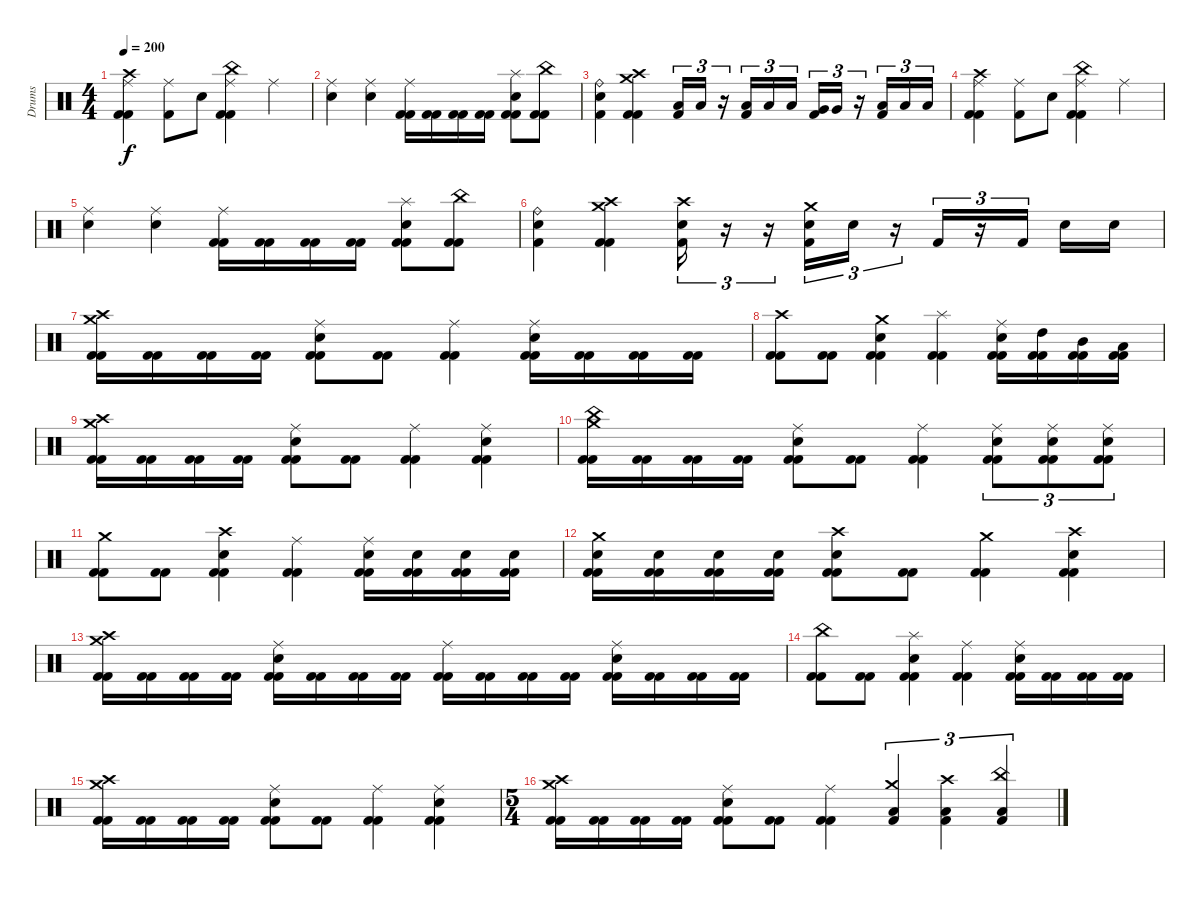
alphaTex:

\track ("Drums" "Drums") {instrument percussion}
\staff {score}
\articulation defaults
\ts (4 4)
\tempo 200
\clef neutral
\ks c
("Crash high (hit)" "Ride (middle)" "Kick (hit) 2" "Kick (hit) 2").4{dy f} ("Ride (middle)" "Kick (hit) 2").8 "Electric Snare (hit)".8 ("China (hit)" "Ride (middle)" "Kick (hit) 2" "Kick (hit) 2").4 "Ride (middle)".4 |
("Electric Snare (hit)" "Ride (middle)").4 ("Electric Snare (hit)" "Ride (middle)").4 ("Kick (hit) 2" "Ride (middle)" "Kick (hit) 2").16 ("Kick (hit) 2" "Kick (hit) 2").16 ("Kick (hit) 2" "Kick (hit) 2").16 ("Kick (hit) 2" "Kick (hit) 2").16 ("Electric Snare (hit)" "Splash (hit)" "Kick (hit) 2" "Kick (hit) 2").8 ("China (hit)" "Kick (hit) 2" "Kick (hit) 2").8 |
("Ride (bell)" "Electric Snare (hit)" "Kick (hit) 2").4 ("Crash medium (hit)" "Crash high (hit)" "Kick (hit) 2" "Kick (hit) 2").4 ("Low Tom (hit)" "Kick (hit) 2").16{tu (3 2)} "Low Tom (hit)".16{tu (3 2)} r.16{tu (3 2)} ("Low Floor Tom (hit)" "Kick (hit) 2").16{tu (3 2)} "Low Floor Tom (hit)".16{tu (3 2)} "Low Floor Tom (hit)".16{tu (3 2)} ("Very Low Tom (hit)" "Kick (hit) 2").16{tu (3 2)} "Very Low Tom (hit)".16{tu (3 2)} r.16{tu (3 2)} ("Low Floor Tom (hit)" "Kick (hit) 2").16{tu (3 2)} "Low Floor Tom (hit)".16{tu (3 2)} "Low Floor Tom (hit)".16{tu (3 2)} |
("Crash high (hit)" "Ride (middle)" "Kick (hit) 2" "Kick (hit) 2").4 ("Ride (middle)" "Kick (hit) 2").8 "Electric Snare (hit)".8 ("China (hit)" "Ride (middle)" "Kick (hit) 2" "Kick (hit) 2").4 "Ride (middle)".4 |
("Electric Snare (hit)" "Ride (middle)").4 ("Electric Snare (hit)" "Ride (middle)").4 ("Kick (hit) 2" "Ride (middle)" "Kick (hit) 2").16 ("Kick (hit) 2" "Kick (hit) 2").16 ("Kick (hit) 2" "Kick (hit) 2").16 ("Kick (hit) 2" "Kick (hit) 2").16 ("Electric Snare (hit)" "Splash (hit)" "Kick (hit) 2" "Kick (hit) 2").8 ("China (hit)" "Kick (hit) 2" "Kick (hit) 2").8 |
("Ride (bell)" "Electric Snare (hit)" "Kick (hit) 2").4 ("Crash medium (hit)" "Crash high (hit)" "Kick (hit) 2" "Kick (hit) 2").4 ("Crash high (hit)" "Electric Snare (hit)" "Kick (hit) 2").16{tu (3 2)} r.16{tu (3 2)} r.16{tu (3 2)} ("Crash medium (hit)" "Electric Snare (hit)" "Kick (hit) 2").16{tu (3 2)} "Electric Snare (hit)".16{tu (3 2)} r.16{tu (3 2)} "Kick (hit) 2".16{tu (3 2)} r.16{tu (3 2)} "Kick (hit) 2".16{tu (3 2)} "Electric Snare (hit)".16 "Electric Snare (hit)".16 |
("Crash high (hit)" "Crash medium (hit)" "Kick (hit) 2" "Kick (hit) 2").16 ("Kick (hit) 2" "Kick (hit) 2").16 ("Kick (hit) 2" "Kick (hit) 2").16 ("Kick (hit) 2" "Kick (hit) 2").16 ("Electric Snare (hit)" "Ride (middle)" "Kick (hit) 2" "Kick (hit) 2").8 ("Kick (hit) 2" "Kick (hit) 2").8 ("Ride (middle)" "Kick (hit) 2" "Kick (hit) 2").4 ("Electric Snare (hit)" "Ride (middle)" "Kick (hit) 2" "Kick (hit) 2").16 ("Kick (hit) 2" "Kick (hit) 2").16 ("Kick (hit) 2" "Kick (hit) 2").16 ("Kick (hit) 2" "Kick (hit) 2").16 |
("Crash high (hit)" "Kick (hit) 2" "Kick (hit) 2").8 ("Kick (hit) 2" "Kick (hit) 2").8 ("Electric Snare (hit)" "Crash medium (hit)" "Kick (hit) 2" "Kick (hit) 2").4 ("Splash (hit)" "Kick (hit) 2" "Kick (hit) 2").4 ("Electric Snare (hit)" "Ride (middle)" "Kick (hit) 2" "Kick (hit) 2").16 ("High Tom (hit)" "Kick (hit) 2" "Kick (hit) 2").16 ("Mid Tom (hit)" "Kick (hit) 2" "Kick (hit) 2").16 ("Low Tom (hit)" "Kick (hit) 2" "Kick (hit) 2").16 |
("Crash high (hit)" "Crash medium (hit)" "Kick (hit) 2" "Kick (hit) 2").16 ("Kick (hit) 2" "Kick (hit) 2").16 ("Kick (hit) 2" "Kick (hit) 2").16 ("Kick (hit) 2" "Kick (hit) 2").16 ("Electric Snare (hit)" "Ride (middle)" "Kick (hit) 2" "Kick (hit) 2").8 ("Kick (hit) 2" "Kick (hit) 2").8 ("Ride (middle)" "Kick (hit) 2" "Kick (hit) 2").4 ("Electric Snare (hit)" "Ride (middle)" "Kick (hit) 2" "Kick (hit) 2").4 |
("China (hit)" "Crash medium (hit)" "Kick (hit) 2" "Kick (hit) 2").16 ("Kick (hit) 2" "Kick (hit) 2").16 ("Kick (hit) 2" "Kick (hit) 2").16 ("Kick (hit) 2" "Kick (hit) 2").16 ("Electric Snare (hit)" "Ride (middle)" "Kick (hit) 2" "Kick (hit) 2").8 ("Kick (hit) 2" "Kick (hit) 2").8 ("Ride (middle)" "Kick (hit) 2" "Kick (hit) 2").4 ("Electric Snare (hit)" "Ride (middle)" "Kick (hit) 2" "Kick (hit) 2").8{tu (3 2)} ("Electric Snare (hit)" "Ride (middle)" "Kick (hit) 2" "Kick (hit) 2").8{tu (3 2)} ("Electric Snare (hit)" "Ride (middle)" "Kick (hit) 2" "Kick (hit) 2").8{tu (3 2)} |
("Crash medium (hit)" "Kick (hit) 2" "Kick (hit) 2").8 ("Kick (hit) 2" "Kick (hit) 2").8 ("Electric Snare (hit)" "Crash high (hit)" "Kick (hit) 2" "Kick (hit) 2").4 ("Ride (middle)" "Kick (hit) 2" "Kick (hit) 2").4 ("Electric Snare (hit)" "Ride (middle)" "Kick (hit) 2" "Kick (hit) 2").16 ("Electric Snare (hit)" "Kick (hit) 2" "Kick (hit) 2").16 ("Electric Snare (hit)" "Kick (hit) 2" "Kick (hit) 2").16 ("Electric Snare (hit)" "Kick (hit) 2" "Kick (hit) 2").16 |
("Electric Snare (hit)" "Crash medium (hit)" "Kick (hit) 2" "Kick (hit) 2").16 ("Electric Snare (hit)" "Kick (hit) 2" "Kick (hit) 2").16 ("Electric Snare (hit)" "Kick (hit) 2" "Kick (hit) 2").16 ("Electric Snare (hit)" "Kick (hit) 2" "Kick (hit) 2").16 ("Electric Snare (hit)" "Crash high (hit)" "Kick (hit) 2" "Kick (hit) 2").8 ("Kick (hit) 2" "Kick (hit) 2").8 ("Crash medium (hit)" "Kick (hit) 2" "Kick (hit) 2").4 ("Electric Snare (hit)" "Crash high (hit)" "Kick (hit) 2" "Kick (hit) 2").4 |
("Crash high (hit)" "Crash medium (hit)" "Kick (hit) 2" "Kick (hit) 2").16 ("Kick (hit) 2" "Kick (hit) 2").16 ("Kick (hit) 2" "Kick (hit) 2").16 ("Kick (hit) 2" "Kick (hit) 2").16 ("Electric Snare (hit)" "Ride (middle)" "Kick (hit) 2" "Kick (hit) 2").16 ("Kick (hit) 2" "Kick (hit) 2").16 ("Kick (hit) 2" "Kick (hit) 2").16 ("Kick (hit) 2" "Kick (hit) 2").16 ("Ride (middle)" "Kick (hit) 2" "Kick (hit) 2").16 ("Kick (hit) 2" "Kick (hit) 2").16 ("Kick (hit) 2" "Kick (hit) 2").16 ("Kick (hit) 2" "Kick (hit) 2").16 ("Electric Snare (hit)" "Ride (middle)" "Kick (hit) 2" "Kick (hit) 2").16 ("Kick (hit) 2" "Kick (hit) 2").16 ("Kick (hit) 2" "Kick (hit) 2").16 ("Kick (hit) 2" "Kick (hit) 2").16 |
("China (hit)" "Kick (hit) 2" "Kick (hit) 2").8 ("Kick (hit) 2" "Kick (hit) 2").8 ("Electric Snare (hit)" "Splash (hit)" "Kick (hit) 2" "Kick (hit) 2").4 ("Ride (middle)" "Kick (hit) 2" "Kick (hit) 2").4 ("Electric Snare (hit)" "Ride (middle)" "Kick (hit) 2" "Kick (hit) 2").16 ("Kick (hit) 2" "Kick (hit) 2").16 ("Kick (hit) 2" "Kick (hit) 2").16 ("Kick (hit) 2" "Kick (hit) 2").16 |
("Crash high (hit)" "Crash medium (hit)" "Kick (hit) 2" "Kick (hit) 2").16 ("Kick (hit) 2" "Kick (hit) 2").16 ("Kick (hit) 2" "Kick (hit) 2").16 ("Kick (hit) 2" "Kick (hit) 2").16 ("Electric Snare (hit)" "Ride (middle)" "Kick (hit) 2" "Kick (hit) 2").8 ("Kick (hit) 2" "Kick (hit) 2").8 ("Ride (middle)" "Kick (hit) 2" "Kick (hit) 2").4 ("Electric Snare (hit)" "Ride (middle)" "Kick (hit) 2" "Kick (hit) 2").4 |
\ts (5 4)
("Crash high (hit)" "Crash medium (hit)" "Kick (hit) 2" "Kick (hit) 2").16 ("Kick (hit) 2" "Kick (hit) 2").16 ("Kick (hit) 2" "Kick (hit) 2").16 ("Kick (hit) 2" "Kick (hit) 2").16 ("Electric Snare (hit)" "Ride (middle)" "Kick (hit) 2" "Kick (hit) 2").8 ("Kick (hit) 2" "Kick (hit) 2").8 ("Ride (middle)" "Kick (hit) 2" "Kick (hit) 2").4 ("Crash medium (hit)" "Low Floor Tom (hit)" "Kick (hit) 2").4{tu (3 2)} ("Crash high (hit)" "Low Floor Tom (hit)" "Kick (hit) 2").4{tu (3 2)} ("China (hit)" "Low Floor Tom (hit)" "Kick (hit) 2").4{tu (3 2)}
